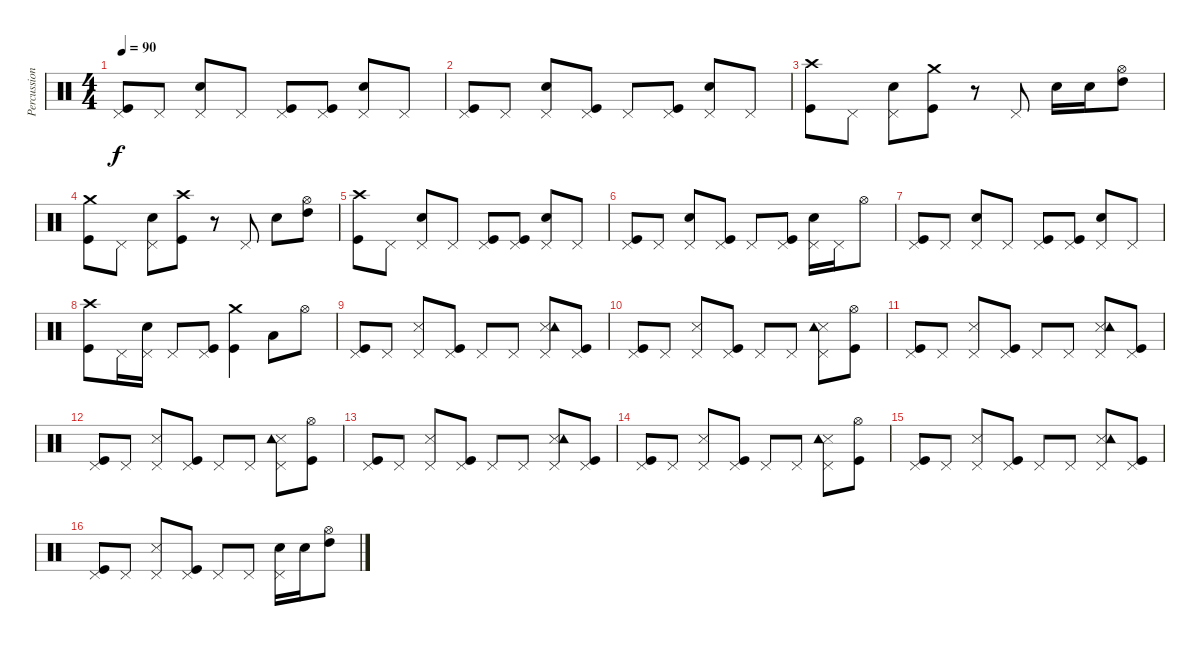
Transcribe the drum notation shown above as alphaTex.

\track ("Percussions" "Percussion") {instrument percussion}
\staff {score}
\articulation defaults
\ts (4 4)
\tempo 90
\clef neutral
\ks c
("Pedal Hi-Hat (hit)" "Kick (hit)").8{dy f} "Pedal Hi-Hat (hit)".8 ("Pedal Hi-Hat (hit)" "Snare (hit) 2").8 "Pedal Hi-Hat (hit)".8 ("Pedal Hi-Hat (hit)" "Kick (hit)").8 ("Pedal Hi-Hat (hit)" "Kick (hit)").8 ("Pedal Hi-Hat (hit)" "Snare (hit) 2").8 "Pedal Hi-Hat (hit)".8 |
("Pedal Hi-Hat (hit)" "Kick (hit)").8 "Pedal Hi-Hat (hit)".8 ("Pedal Hi-Hat (hit)" "Snare (hit) 2").8 ("Pedal Hi-Hat (hit)" "Kick (hit)").8 "Pedal Hi-Hat (hit)".8 ("Pedal Hi-Hat (hit)" "Kick (hit)").8 ("Pedal Hi-Hat (hit)" "Snare (hit) 2").8 "Pedal Hi-Hat (hit)".8 |
("Crash high (hit)" "Kick (hit)").8 "Pedal Hi-Hat (hit)".8 ("Pedal Hi-Hat (hit)" "Snare (hit) 2").8 ("Crash medium (hit)" "Kick (hit)").8 r.8 "Pedal Hi-Hat (hit)".8 "Snare (hit) 2".16 "Snare (hit) 2".16 ("Hi-Hat (open)" "High Tom (hit)").8 |
("Crash medium (hit)" "Kick (hit)").8 "Pedal Hi-Hat (hit)".8 ("Pedal Hi-Hat (hit)" "Snare (hit) 2").8 ("Crash high (hit)" "Kick (hit)").8 r.8 "Pedal Hi-Hat (hit)".8 "Snare (hit) 2".8 ("Hi-Hat (open)" "High Tom (hit)").8 |
("Crash high (hit)" "Kick (hit)").8 "Pedal Hi-Hat (hit)".8 ("Pedal Hi-Hat (hit)" "Snare (hit) 2").8 "Pedal Hi-Hat (hit)".8 ("Pedal Hi-Hat (hit)" "Kick (hit)").8 ("Pedal Hi-Hat (hit)" "Kick (hit)").8 ("Pedal Hi-Hat (hit)" "Snare (hit) 2").8 "Pedal Hi-Hat (hit)".8 |
("Pedal Hi-Hat (hit)" "Kick (hit)").8 "Pedal Hi-Hat (hit)".8 ("Pedal Hi-Hat (hit)" "Snare (hit) 2").8 ("Pedal Hi-Hat (hit)" "Kick (hit)").8 "Pedal Hi-Hat (hit)".8 ("Pedal Hi-Hat (hit)" "Kick (hit)").8 ("Pedal Hi-Hat (hit)" "Snare (hit) 2").16 "Pedal Hi-Hat (hit)".16 "Hi-Hat (open)".8 |
("Pedal Hi-Hat (hit)" "Kick (hit)").8 "Pedal Hi-Hat (hit)".8 ("Pedal Hi-Hat (hit)" "Snare (hit) 2").8 "Pedal Hi-Hat (hit)".8 ("Pedal Hi-Hat (hit)" "Kick (hit)").8 ("Pedal Hi-Hat (hit)" "Kick (hit)").8 ("Pedal Hi-Hat (hit)" "Snare (hit) 2").8 "Pedal Hi-Hat (hit)".8 |
("Crash high (hit)" "Kick (hit)").8 "Pedal Hi-Hat (hit)".16 ("Pedal Hi-Hat (hit)" "Snare (hit) 2").16 "Pedal Hi-Hat (hit)".8 ("Pedal Hi-Hat (hit)" "Kick (hit)").8 ("Crash medium (hit)" "Kick (hit)").4 "Low Tom (hit)".8 "Hi-Hat (open)".8 |
("Pedal Hi-Hat (hit)" "Kick (hit)").8 "Pedal Hi-Hat (hit)".8 ("Pedal Hi-Hat (hit)" "Snare (side stick) 3").8 ("Pedal Hi-Hat (hit)" "Kick (hit)").8 "Pedal Hi-Hat (hit)".8 "Pedal Hi-Hat (hit)".8 ("Pedal Hi-Hat (hit)" "Snare (side stick) 3" "Tambourine (hit)").8 ("Pedal Hi-Hat (hit)" "Kick (hit)").8 |
("Pedal Hi-Hat (hit)" "Kick (hit)").8 "Pedal Hi-Hat (hit)".8 ("Pedal Hi-Hat (hit)" "Snare (side stick) 3").8 ("Pedal Hi-Hat (hit)" "Kick (hit)").8 "Pedal Hi-Hat (hit)".8 "Pedal Hi-Hat (hit)".8 ("Pedal Hi-Hat (hit)" "Snare (side stick) 3" "Tambourine (hit)").8 ("Hi-Hat (open)" "Kick (hit)").8 |
("Pedal Hi-Hat (hit)" "Kick (hit)").8 "Pedal Hi-Hat (hit)".8 ("Pedal Hi-Hat (hit)" "Snare (side stick) 3").8 ("Pedal Hi-Hat (hit)" "Kick (hit)").8 "Pedal Hi-Hat (hit)".8 "Pedal Hi-Hat (hit)".8 ("Pedal Hi-Hat (hit)" "Snare (side stick) 3" "Tambourine (hit)").8 ("Pedal Hi-Hat (hit)" "Kick (hit)").8 |
("Pedal Hi-Hat (hit)" "Kick (hit)").8 "Pedal Hi-Hat (hit)".8 ("Pedal Hi-Hat (hit)" "Snare (side stick) 3").8 ("Pedal Hi-Hat (hit)" "Kick (hit)").8 "Pedal Hi-Hat (hit)".8 "Pedal Hi-Hat (hit)".8 ("Pedal Hi-Hat (hit)" "Snare (side stick) 3" "Tambourine (hit)").8 ("Hi-Hat (open)" "Kick (hit)").8 |
("Pedal Hi-Hat (hit)" "Kick (hit)").8 "Pedal Hi-Hat (hit)".8 ("Pedal Hi-Hat (hit)" "Snare (side stick) 3").8 ("Pedal Hi-Hat (hit)" "Kick (hit)").8 "Pedal Hi-Hat (hit)".8 "Pedal Hi-Hat (hit)".8 ("Pedal Hi-Hat (hit)" "Snare (side stick) 3" "Tambourine (hit)").8 ("Pedal Hi-Hat (hit)" "Kick (hit)").8 |
("Pedal Hi-Hat (hit)" "Kick (hit)").8 "Pedal Hi-Hat (hit)".8 ("Pedal Hi-Hat (hit)" "Snare (side stick) 3").8 ("Pedal Hi-Hat (hit)" "Kick (hit)").8 "Pedal Hi-Hat (hit)".8 "Pedal Hi-Hat (hit)".8 ("Pedal Hi-Hat (hit)" "Snare (side stick) 3" "Tambourine (hit)").8 ("Hi-Hat (open)" "Kick (hit)").8 |
("Pedal Hi-Hat (hit)" "Kick (hit)").8 "Pedal Hi-Hat (hit)".8 ("Pedal Hi-Hat (hit)" "Snare (side stick) 3").8 ("Pedal Hi-Hat (hit)" "Kick (hit)").8 "Pedal Hi-Hat (hit)".8 "Pedal Hi-Hat (hit)".8 ("Pedal Hi-Hat (hit)" "Snare (side stick) 3" "Tambourine (hit)").8 ("Pedal Hi-Hat (hit)" "Kick (hit)").8 |
("Pedal Hi-Hat (hit)" "Kick (hit)").8 "Pedal Hi-Hat (hit)".8 ("Pedal Hi-Hat (hit)" "Snare (side stick) 3").8 ("Pedal Hi-Hat (hit)" "Kick (hit)").8 "Pedal Hi-Hat (hit)".8 "Pedal Hi-Hat (hit)".8 ("Pedal Hi-Hat (hit)" "Snare (hit) 2").16 "Snare (hit) 2".16 ("Hi-Hat (open)" "High Tom (hit)").8
